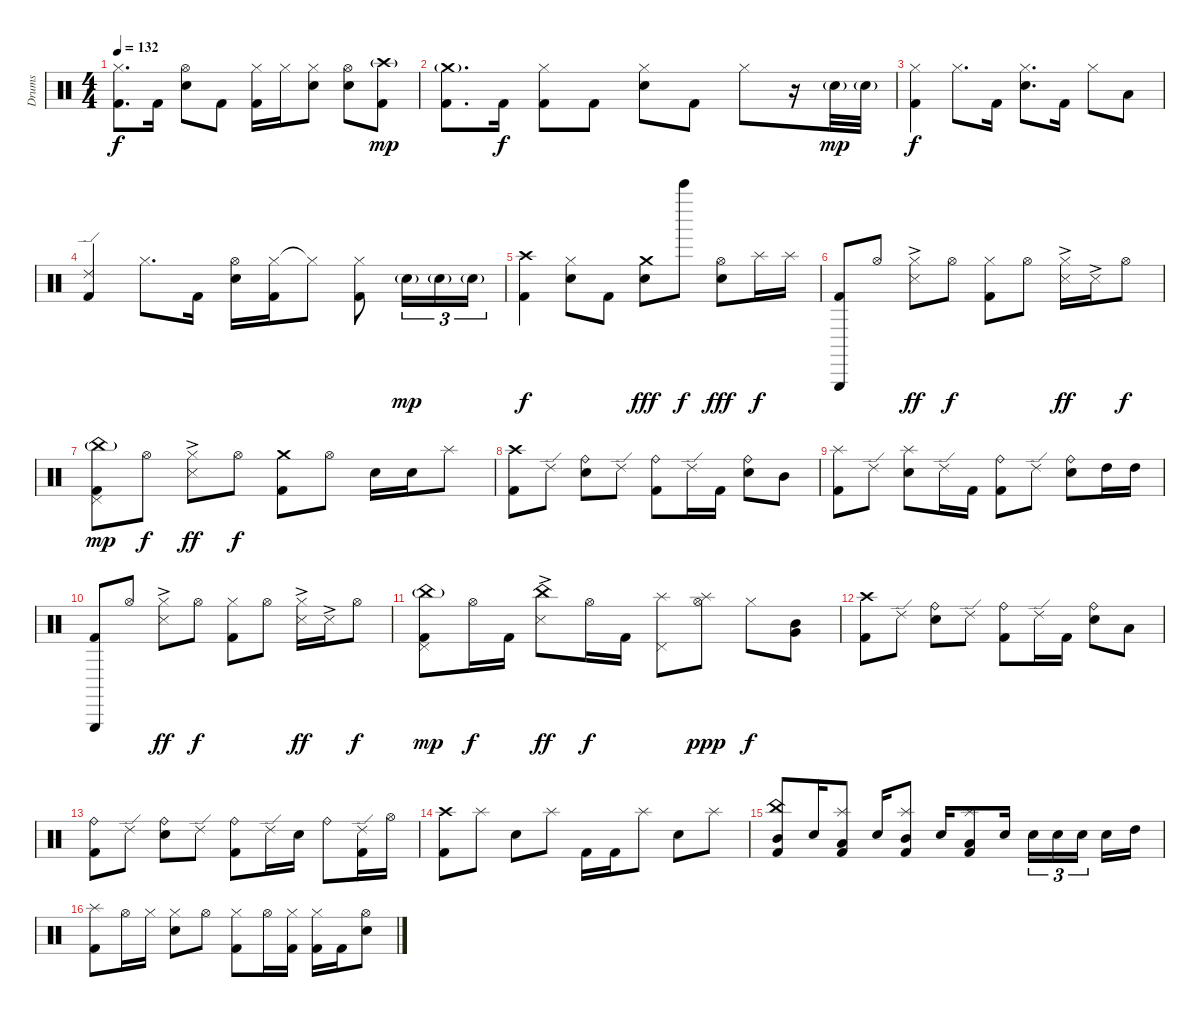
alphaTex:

\track ("Drums" "Drums") {instrument percussion}
\staff {score}
\articulation defaults
\ts (4 4)
\tempo 132
\clef neutral
\ks c
("Hi-Hat (closed)" "Kick (hit) 2").8{d dy f} "Kick (hit) 2".16 ("Hi-Hat (open)" "Electric Snare (hit)").8 "Kick (hit) 2".8 ("Hi-Hat (closed)" "Kick (hit) 2").16 "Hi-Hat (closed)".16 ("Hi-Hat (closed)" "Electric Snare (hit)").8 ("Hi-Hat (open)" "Electric Snare (hit)").8 ("Crash high (hit)"{g} "Kick (hit) 2").8{dy mp} |
("Crash medium (hit)"{g} "Kick (hit) 2").8{d} "Kick (hit) 2".16{dy f} ("Hi-Hat (closed)" "Kick (hit) 2").8 "Kick (hit) 2".8 ("Hi-Hat (closed)" "Electric Snare (hit)").8 "Kick (hit) 2".8 "Hi-Hat (closed)".8 r.16 "Electric Snare (hit)"{g}.32{dy mp} "Electric Snare (hit)"{g}.32 |
("Hi-Hat (closed)" "Kick (hit) 2").4{dy f} "Hi-Hat (closed)".8{d} "Kick (hit) 2".16 ("Hi-Hat (closed)" "Electric Snare (hit)").8{d} "Kick (hit) 2".16 "Hi-Hat (closed)".8 "Low Tom (hit)".8 |
("Ride (edge) 2" "Kick (hit) 2").4 "Hi-Hat (closed)".8{d} "Kick (hit) 2".16 ("Hi-Hat (open)" "Electric Snare (hit)").16 ("Hi-Hat (closed)" "Kick (hit) 2").16 "Hi-Hat (closed)"{t}.8 ("Hi-Hat (closed)" "Kick (hit) 2").8 "Electric Snare (hit)"{g}.16{tu (3 2) dy mp} "Electric Snare (hit)"{g}.16{tu (3 2)} "Electric Snare (hit)"{g}.16{tu (3 2)} |
("Crash high (hit)" "Kick (hit) 2").4{dy f} ("Hi-Hat (closed)" "Electric Snare (hit)").8 "Kick (hit) 2".8 ("Crash medium (hit)" "Electric Snare (hit)").8{dy fff} "Bell Tree (hit)".8{dy f} ("Hi-Hat (open)" "Electric Snare (hit)").8{dy fff} "Splash (hit)".16{dy f} "Splash (hit)".16 |
("Triangle (hit)" "Kick (hit) 2").8{volume 12} "Hi-Hat (open)".8 ("Hi-Hat (closed)" "Snare (side stick) 3"{ac}).8{dy ff} "Hi-Hat (open)".8{dy f} ("Hi-Hat (closed)" "Kick (hit) 2").8 "Hi-Hat (open)".8 ("Hi-Hat (closed)" "Snare (side stick) 3"{ac}).16{dy ff} "Snare (side stick) 3"{ac}.16 "Hi-Hat (open)".8{dy f} |
("China (hit)"{g} "Pedal Hi-Hat (hit)" "Kick (hit) 2").8{dy mp} "Hi-Hat (open)".8{dy f} ("Hi-Hat (closed)" "Snare (side stick) 3"{ac}).8{dy ff} "Hi-Hat (open)".8{dy f} ("Crash medium (hit)" "Kick (hit) 2").8 "Hi-Hat (open)".8 "Electric Snare (hit)".16 "Electric Snare (hit)".16 "Splash (hit)".8 |
("Crash high (hit)" "Kick (hit) 2").8 "Ride (edge) 2".8 ("Ride (bell)" "Electric Snare (hit)").8 "Ride (edge) 2".8 ("Ride (bell)" "Kick (hit) 2").8 "Ride (edge) 2".16 "Kick (hit) 2".16 ("Ride (bell)" "Electric Snare (hit)").8 "Mid Tom (hit)".8 |
("Splash (hit)" "Kick (hit) 2").8 "Ride (edge) 2".8 ("Splash (hit)" "Electric Snare (hit)").8 "Ride (edge) 2".16 "Kick (hit) 2".16 ("Ride (bell)" "Kick (hit) 2").8 "Ride (edge) 2".8 ("Ride (bell)" "Electric Snare (hit)").8 "High Tom (hit)".16 "High Tom (hit)".16 |
("Triangle (hit)" "Kick (hit) 2").8 "Hi-Hat (open)".8 ("Hi-Hat (closed)" "Snare (side stick) 3"{ac}).8{dy ff} "Hi-Hat (open)".8{dy f} ("Hi-Hat (closed)" "Kick (hit) 2").8 "Hi-Hat (open)".8 ("Hi-Hat (closed)" "Snare (side stick) 3"{ac}).16{dy ff} "Snare (side stick) 3"{ac}.16 "Hi-Hat (open)".8{dy f} |
("China (hit)"{g} "Pedal Hi-Hat (hit)" "Kick (hit) 2").8{dy mp} "Hi-Hat (open)".16{dy f} "Kick (hit) 2".16 ("China (hit)" "Snare (side stick) 3"{ac}).8{dy ff} "Hi-Hat (open)".16{dy f} "Kick (hit) 2".16 ("Splash (hit)" "Pedal Hi-Hat (hit)").8 ("Splash (hit)" "Hi-Hat (open)").8{dy ppp} "Hi-Hat (closed)".8{dy f} ("Mid Tom (hit)" "Very Low Tom (hit)").8 |
("Crash high (hit)" "Kick (hit) 2").8 "Ride (edge) 2".8 ("Ride (bell)" "Electric Snare (hit)").8 "Ride (edge) 2".8 ("Ride (bell)" "Kick (hit) 2").8 "Ride (edge) 2".16 "Kick (hit) 2".16 ("Ride (bell)" "Electric Snare (hit)").8 "Low Tom (hit)".8 |
("Ride (bell)" "Kick (hit) 2").8 "Ride (edge) 2".8 ("Ride (bell)" "Electric Snare (hit)").8 "Ride (edge) 2".8 ("Ride (bell)" "Kick (hit) 2").8 "Ride (edge) 2".16 "Electric Snare (hit)".16 "Ride (bell)".8 ("Ride (edge) 2" "Kick (hit) 2").16 "Hi-Hat (open)".16 |
("Crash high (hit)" "Kick (hit) 2").8 "Splash (hit)".8 "Electric Snare (hit)".8 "Splash (hit)".8 "Kick (hit) 2".16 "Kick (hit) 2".16 "Splash (hit)".8 "Electric Snare (hit)".8 "Splash (hit)".8 |
("China (hit)" "Mid Tom (hit)" "Kick (hit) 2").8 "Electric Snare (hit)".16 ("Splash (hit)" "Low Floor Tom (hit)" "Kick (hit) 2").8 "Electric Snare (hit)".16 ("Splash (hit)" "Mid Tom (hit)" "Kick (hit) 2").8 "Electric Snare (hit)".16 ("Splash (hit)" "Low Floor Tom (hit)" "Kick (hit) 2").8 "Electric Snare (hit)".16 "Electric Snare (hit)".16{tu (3 2)} "Electric Snare (hit)".16{tu (3 2)} "Electric Snare (hit)".16{tu (3 2) beam splitsecondary} "Electric Snare (hit)".16 "High Tom (hit)".16 |
("Splash (hit)" "Kick (hit) 2").8 "Hi-Hat (open)".16 "Hi-Hat (closed)".16 ("Hi-Hat (closed)" "Electric Snare (hit)").8 "Hi-Hat (open)".8 ("Hi-Hat (closed)" "Kick (hit) 2").8 "Hi-Hat (open)".16 ("Hi-Hat (closed)" "Kick (hit) 2").16 ("Hi-Hat (closed)" "Kick (hit) 2").16 "Kick (hit) 2".16 ("Hi-Hat (open)" "Electric Snare (hit)").8
